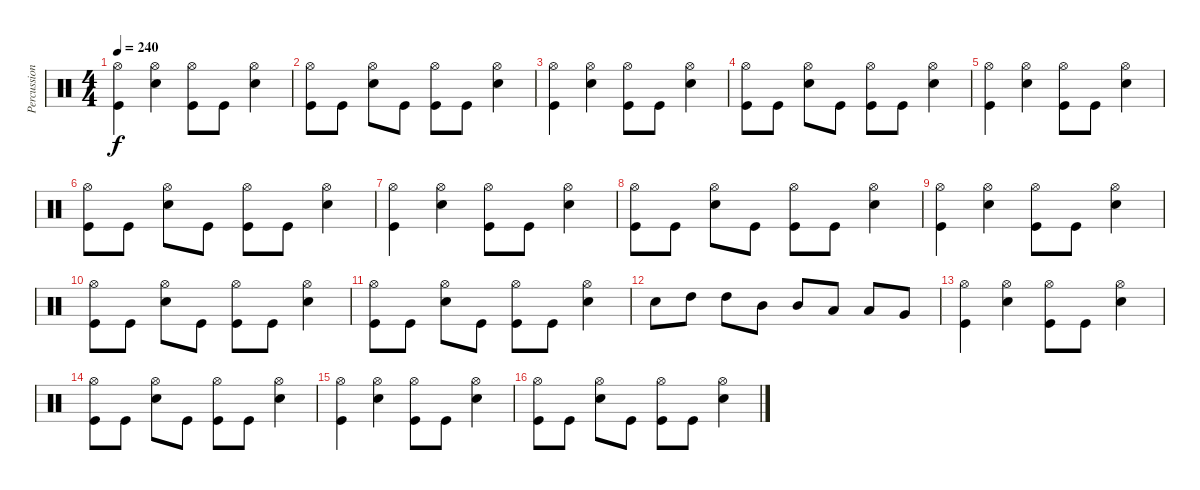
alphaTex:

\track ("Percussions" "Percussion") {instrument percussion}
\staff {score}
\articulation defaults
\ts (4 4)
\tempo 240
\clef neutral
\ks c
("Kick (hit)" "Hi-Hat (open)").4{dy f} ("Electric Snare (hit)" "Hi-Hat (open)").4 ("Kick (hit)" "Hi-Hat (open)").8 "Kick (hit)".8 ("Electric Snare (hit)" "Hi-Hat (open)").4 |
("Kick (hit)" "Hi-Hat (open)").8 "Kick (hit)".8 ("Electric Snare (hit)" "Hi-Hat (open)").8 "Kick (hit)".8 ("Kick (hit)" "Hi-Hat (open)").8 "Kick (hit)".8 ("Electric Snare (hit)" "Hi-Hat (open)").4 |
("Kick (hit)" "Hi-Hat (open)").4 ("Electric Snare (hit)" "Hi-Hat (open)").4 ("Kick (hit)" "Hi-Hat (open)").8 "Kick (hit)".8 ("Electric Snare (hit)" "Hi-Hat (open)").4 |
("Kick (hit)" "Hi-Hat (open)").8 "Kick (hit)".8 ("Electric Snare (hit)" "Hi-Hat (open)").8 "Kick (hit)".8 ("Kick (hit)" "Hi-Hat (open)").8 "Kick (hit)".8 ("Electric Snare (hit)" "Hi-Hat (open)").4 |
("Kick (hit)" "Hi-Hat (open)").4 ("Electric Snare (hit)" "Hi-Hat (open)").4 ("Kick (hit)" "Hi-Hat (open)").8 "Kick (hit)".8 ("Electric Snare (hit)" "Hi-Hat (open)").4 |
("Kick (hit)" "Hi-Hat (open)").8 "Kick (hit)".8 ("Electric Snare (hit)" "Hi-Hat (open)").8 "Kick (hit)".8 ("Kick (hit)" "Hi-Hat (open)").8 "Kick (hit)".8 ("Electric Snare (hit)" "Hi-Hat (open)").4 |
("Kick (hit)" "Hi-Hat (open)").4 ("Electric Snare (hit)" "Hi-Hat (open)").4 ("Kick (hit)" "Hi-Hat (open)").8 "Kick (hit)".8 ("Electric Snare (hit)" "Hi-Hat (open)").4 |
("Kick (hit)" "Hi-Hat (open)").8 "Kick (hit)".8 ("Electric Snare (hit)" "Hi-Hat (open)").8 "Kick (hit)".8 ("Kick (hit)" "Hi-Hat (open)").8 "Kick (hit)".8 ("Electric Snare (hit)" "Hi-Hat (open)").4 |
("Kick (hit)" "Hi-Hat (open)").4 ("Electric Snare (hit)" "Hi-Hat (open)").4 ("Kick (hit)" "Hi-Hat (open)").8 "Kick (hit)".8 ("Electric Snare (hit)" "Hi-Hat (open)").4 |
("Kick (hit)" "Hi-Hat (open)").8 "Kick (hit)".8 ("Electric Snare (hit)" "Hi-Hat (open)").8 "Kick (hit)".8 ("Kick (hit)" "Hi-Hat (open)").8 "Kick (hit)".8 ("Electric Snare (hit)" "Hi-Hat (open)").4 |
("Kick (hit)" "Hi-Hat (open)").8 "Kick (hit)".8 ("Electric Snare (hit)" "Hi-Hat (open)").8 "Kick (hit)".8 ("Kick (hit)" "Hi-Hat (open)").8 "Kick (hit)".8 ("Electric Snare (hit)" "Hi-Hat (open)").4 |
"Electric Snare (hit)".8 "High Tom (hit)".8 "High Tom (hit)".8 "Mid Tom (hit)".8 "Mid Tom (hit)".8 "Low Tom (hit)".8 "Low Tom (hit)".8 "Very Low Tom (hit)".8 |
("Kick (hit)" "Hi-Hat (open)").4 ("Electric Snare (hit)" "Hi-Hat (open)").4 ("Kick (hit)" "Hi-Hat (open)").8 "Kick (hit)".8 ("Electric Snare (hit)" "Hi-Hat (open)").4 |
("Kick (hit)" "Hi-Hat (open)").8 "Kick (hit)".8 ("Electric Snare (hit)" "Hi-Hat (open)").8 "Kick (hit)".8 ("Kick (hit)" "Hi-Hat (open)").8 "Kick (hit)".8 ("Electric Snare (hit)" "Hi-Hat (open)").4 |
("Kick (hit)" "Hi-Hat (open)").4 ("Electric Snare (hit)" "Hi-Hat (open)").4 ("Kick (hit)" "Hi-Hat (open)").8 "Kick (hit)".8 ("Electric Snare (hit)" "Hi-Hat (open)").4 |
("Kick (hit)" "Hi-Hat (open)").8 "Kick (hit)".8 ("Electric Snare (hit)" "Hi-Hat (open)").8 "Kick (hit)".8 ("Kick (hit)" "Hi-Hat (open)").8 "Kick (hit)".8 ("Electric Snare (hit)" "Hi-Hat (open)").4
